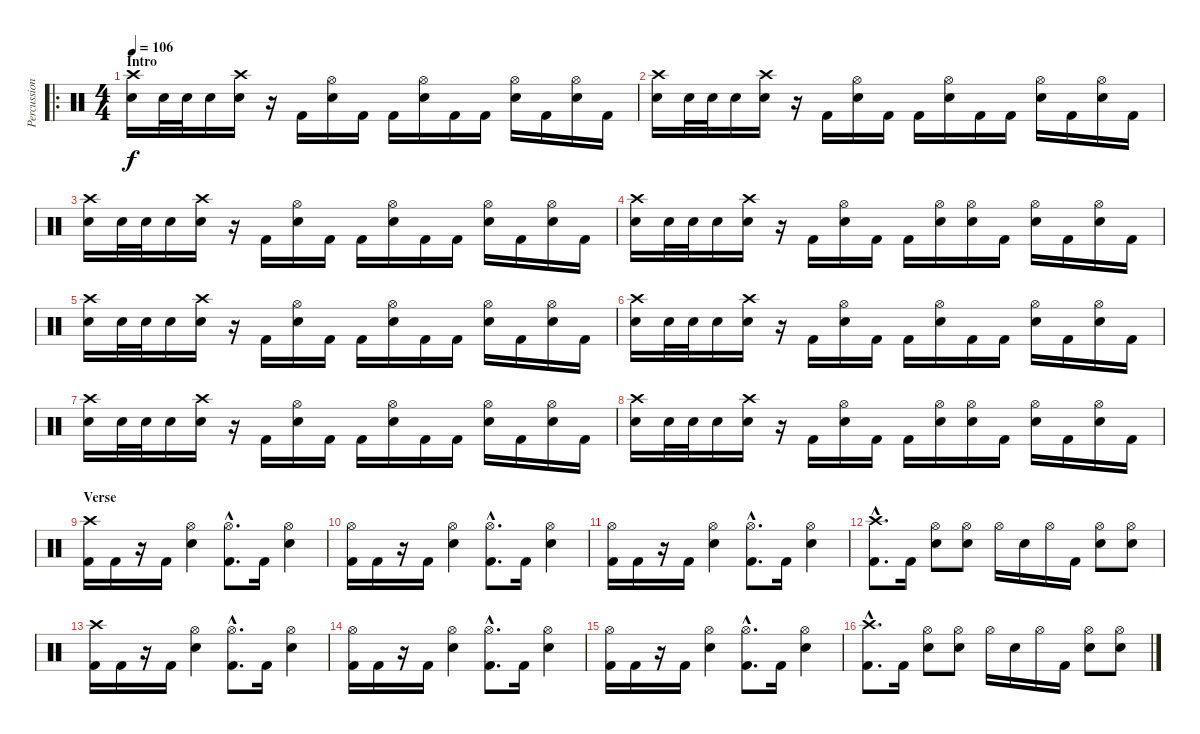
\track ("Percussion" "Percussion") {instrument percussion}
\staff {score}
\articulation defaults
\ro
\ts (4 4)
\section ("" "Intro")
\tempo 106
\clef neutral
\ks c
("Crash high (hit)" "Snare (hit) 2").16{dy f} "Snare (hit) 2".32 "Snare (hit) 2".32 "Snare (hit) 2".16 ("Crash high (hit)" "Snare (hit) 2").16 r.16 "Kick (hit) 2".16 ("Snare (hit) 2" "Hi-Hat (open)").16 "Kick (hit) 2".16 "Kick (hit) 2".16 ("Snare (hit) 2" "Hi-Hat (open)").16 "Kick (hit) 2".16 "Kick (hit) 2".16 ("Snare (hit) 2" "Hi-Hat (open)").16 "Kick (hit) 2".16 ("Snare (hit) 2" "Hi-Hat (open)").16 "Kick (hit) 2".16 |
("Crash high (hit)" "Snare (hit) 2").16 "Snare (hit) 2".32 "Snare (hit) 2".32 "Snare (hit) 2".16 ("Crash high (hit)" "Snare (hit) 2").16 r.16 "Kick (hit) 2".16 ("Snare (hit) 2" "Hi-Hat (open)").16 "Kick (hit) 2".16 "Kick (hit) 2".16 ("Snare (hit) 2" "Hi-Hat (open)").16 "Kick (hit) 2".16 "Kick (hit) 2".16 ("Snare (hit) 2" "Hi-Hat (open)").16 "Kick (hit) 2".16 ("Snare (hit) 2" "Hi-Hat (open)").16 "Kick (hit) 2".16 |
("Crash high (hit)" "Snare (hit) 2").16 "Snare (hit) 2".32 "Snare (hit) 2".32 "Snare (hit) 2".16 ("Crash high (hit)" "Snare (hit) 2").16 r.16 "Kick (hit) 2".16 ("Snare (hit) 2" "Hi-Hat (open)").16 "Kick (hit) 2".16 "Kick (hit) 2".16 ("Snare (hit) 2" "Hi-Hat (open)").16 "Kick (hit) 2".16 "Kick (hit) 2".16 ("Snare (hit) 2" "Hi-Hat (open)").16 "Kick (hit) 2".16 ("Snare (hit) 2" "Hi-Hat (open)").16 "Kick (hit) 2".16 |
("Crash high (hit)" "Snare (hit) 2").16 "Snare (hit) 2".32 "Snare (hit) 2".32 "Snare (hit) 2".16 ("Crash high (hit)" "Snare (hit) 2").16 r.16 "Kick (hit) 2".16 ("Snare (hit) 2" "Hi-Hat (open)").16 "Kick (hit) 2".16 "Kick (hit) 2".16 ("Snare (hit) 2" "Hi-Hat (open)").16 ("Snare (hit) 2" "Hi-Hat (open)").16 "Kick (hit) 2".16 ("Snare (hit) 2" "Hi-Hat (open)").16 "Kick (hit) 2".16 ("Snare (hit) 2" "Hi-Hat (open)").16 "Kick (hit) 2".16 |
("Crash high (hit)" "Snare (hit) 2").16 "Snare (hit) 2".32 "Snare (hit) 2".32 "Snare (hit) 2".16 ("Crash high (hit)" "Snare (hit) 2").16 r.16 "Kick (hit) 2".16 ("Snare (hit) 2" "Hi-Hat (open)").16 "Kick (hit) 2".16 "Kick (hit) 2".16 ("Snare (hit) 2" "Hi-Hat (open)").16 "Kick (hit) 2".16 "Kick (hit) 2".16 ("Snare (hit) 2" "Hi-Hat (open)").16 "Kick (hit) 2".16 ("Snare (hit) 2" "Hi-Hat (open)").16 "Kick (hit) 2".16 |
("Crash high (hit)" "Snare (hit) 2").16 "Snare (hit) 2".32 "Snare (hit) 2".32 "Snare (hit) 2".16 ("Crash high (hit)" "Snare (hit) 2").16 r.16 "Kick (hit) 2".16 ("Snare (hit) 2" "Hi-Hat (open)").16 "Kick (hit) 2".16 "Kick (hit) 2".16 ("Snare (hit) 2" "Hi-Hat (open)").16 "Kick (hit) 2".16 "Kick (hit) 2".16 ("Snare (hit) 2" "Hi-Hat (open)").16 "Kick (hit) 2".16 ("Snare (hit) 2" "Hi-Hat (open)").16 "Kick (hit) 2".16 |
("Crash high (hit)" "Snare (hit) 2").16 "Snare (hit) 2".32 "Snare (hit) 2".32 "Snare (hit) 2".16 ("Crash high (hit)" "Snare (hit) 2").16 r.16 "Kick (hit) 2".16 ("Snare (hit) 2" "Hi-Hat (open)").16 "Kick (hit) 2".16 "Kick (hit) 2".16 ("Snare (hit) 2" "Hi-Hat (open)").16 "Kick (hit) 2".16 "Kick (hit) 2".16 ("Snare (hit) 2" "Hi-Hat (open)").16 "Kick (hit) 2".16 ("Snare (hit) 2" "Hi-Hat (open)").16 "Kick (hit) 2".16 |
("Crash high (hit)" "Snare (hit) 2").16 "Snare (hit) 2".32 "Snare (hit) 2".32 "Snare (hit) 2".16 ("Crash high (hit)" "Snare (hit) 2").16 r.16 "Kick (hit) 2".16 ("Snare (hit) 2" "Hi-Hat (open)").16 "Kick (hit) 2".16 "Kick (hit) 2".16 ("Snare (hit) 2" "Hi-Hat (open)").16 ("Snare (hit) 2" "Hi-Hat (open)").16 "Kick (hit) 2".16 ("Snare (hit) 2" "Hi-Hat (open)").16 "Kick (hit) 2".16 ("Snare (hit) 2" "Hi-Hat (open)").16 "Kick (hit) 2".16 |
\section ("" "Verse")
("Kick (hit) 2" "Crash high (hit)").16 "Kick (hit) 2".16 r.16 "Kick (hit) 2".16 ("Snare (hit) 2" "Hi-Hat (open)").4 ("Kick (hit) 2"{hac} "Hi-Hat (open)"{hac}).8{d} "Kick (hit) 2".16 ("Snare (hit) 2" "Hi-Hat (open)").4 |
("Kick (hit) 2" "Hi-Hat (open)").16 "Kick (hit) 2".16 r.16 "Kick (hit) 2".16 ("Snare (hit) 2" "Hi-Hat (open)").4 ("Kick (hit) 2"{hac} "Hi-Hat (open)"{hac}).8{d} "Kick (hit) 2".16 ("Snare (hit) 2" "Hi-Hat (open)").4 |
("Kick (hit) 2" "Hi-Hat (open)").16 "Kick (hit) 2".16 r.16 "Kick (hit) 2".16 ("Snare (hit) 2" "Hi-Hat (open)").4 ("Kick (hit) 2"{hac} "Hi-Hat (open)"{hac}).8{d} "Kick (hit) 2".16 ("Snare (hit) 2" "Hi-Hat (open)").4 |
("Kick (hit) 2"{hac} "Crash high (hit)"{hac}).8{d} "Kick (hit) 2".16 ("Snare (hit) 2" "Hi-Hat (open)").8 ("Snare (hit) 2" "Hi-Hat (open)").8 "Hi-Hat (open)".16 "Snare (hit) 2".16 "Hi-Hat (open)".16 "Kick (hit) 2".16 ("Snare (hit) 2" "Hi-Hat (open)").8 ("Snare (hit) 2" "Hi-Hat (open)").8 |
("Kick (hit) 2" "Crash high (hit)").16 "Kick (hit) 2".16 r.16 "Kick (hit) 2".16 ("Snare (hit) 2" "Hi-Hat (open)").4 ("Kick (hit) 2"{hac} "Hi-Hat (open)"{hac}).8{d} "Kick (hit) 2".16 ("Snare (hit) 2" "Hi-Hat (open)").4 |
("Kick (hit) 2" "Hi-Hat (open)").16 "Kick (hit) 2".16 r.16 "Kick (hit) 2".16 ("Snare (hit) 2" "Hi-Hat (open)").4 ("Kick (hit) 2"{hac} "Hi-Hat (open)"{hac}).8{d} "Kick (hit) 2".16 ("Snare (hit) 2" "Hi-Hat (open)").4 |
("Kick (hit) 2" "Hi-Hat (open)").16 "Kick (hit) 2".16 r.16 "Kick (hit) 2".16 ("Snare (hit) 2" "Hi-Hat (open)").4 ("Kick (hit) 2"{hac} "Hi-Hat (open)"{hac}).8{d} "Kick (hit) 2".16 ("Snare (hit) 2" "Hi-Hat (open)").4 |
("Kick (hit) 2"{hac} "Crash high (hit)"{hac}).8{d} "Kick (hit) 2".16 ("Snare (hit) 2" "Hi-Hat (open)").8 ("Snare (hit) 2" "Hi-Hat (open)").8 "Hi-Hat (open)".16 "Snare (hit) 2".16 "Hi-Hat (open)".16 "Kick (hit) 2".16 ("Snare (hit) 2" "Hi-Hat (open)").8 ("Snare (hit) 2" "Hi-Hat (open)").8
